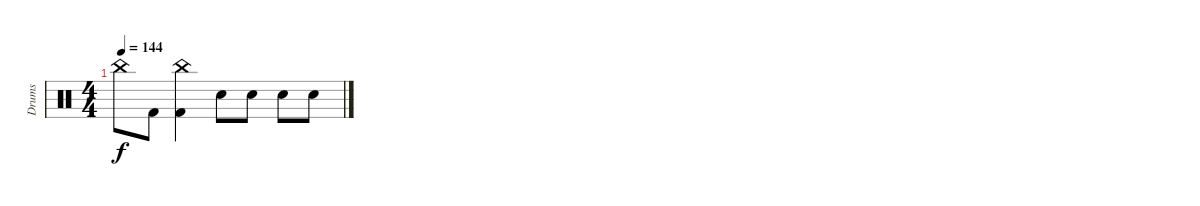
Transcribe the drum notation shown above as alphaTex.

\track ("Drums" "Drums") {instrument percussion}
\staff {score}
\articulation defaults
\ts (4 4)
\tempo 144
\clef neutral
\ks c "China (hit)".8{dy f} "Kick (hit) 2".8
("China (hit)" "Kick (hit) 2").4 "Snare (hit) 2".8 "Snare (hit) 2".8 "Snare (hit) 2".8 "Snare (hit) 2".8
